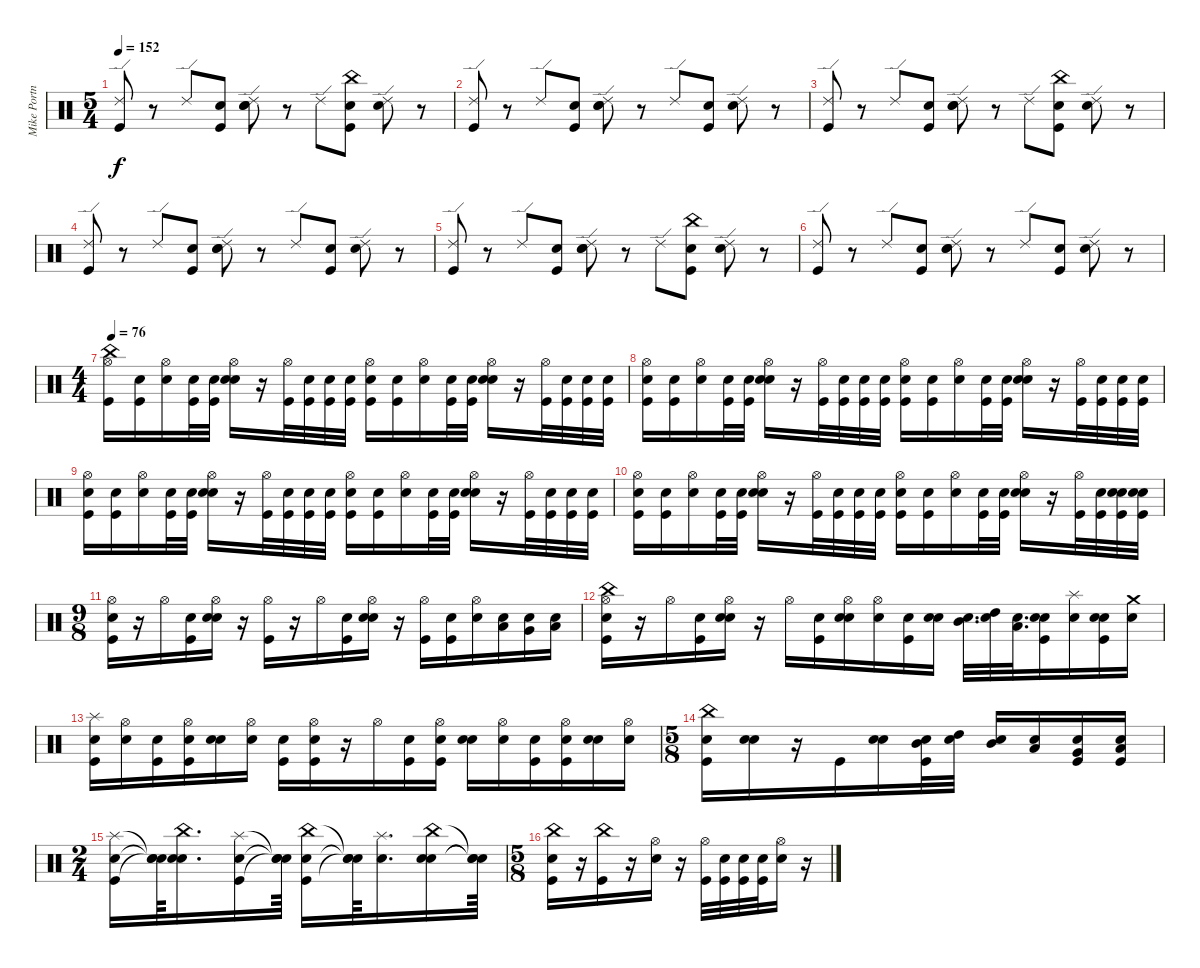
\track ("Mike Portnoy" "Mike Portn") {instrument percussion}
\staff {score}
\articulation defaults
\ts (5 4)
\tempo 152
\clef neutral
\ks c
("Kick (hit)" "Ride (edge) 2").8{dy f} r.8 "Ride (edge) 2".8 ("Snare (hit)" "Kick (hit)").8 ("Snare (hit)" "Snare (hit) 2" "Ride (edge) 2").8 r.8 "Ride (edge) 2".8 ("Snare (hit)" "Kick (hit)" "China (hit)").8 ("Snare (hit)" "Ride (edge) 2").8 r.8 |
("Kick (hit)" "Ride (edge) 2").8 r.8 "Ride (edge) 2".8 ("Snare (hit)" "Kick (hit)").8 ("Snare (hit)" "Snare (hit) 2" "Ride (edge) 2").8 r.8 "Ride (edge) 2".8 ("Snare (hit)" "Kick (hit)").8 ("Snare (hit)" "Ride (edge) 2").8 r.8 |
("Kick (hit)" "Ride (edge) 2").8 r.8 "Ride (edge) 2".8 ("Snare (hit)" "Kick (hit)").8 ("Snare (hit)" "Snare (hit) 2" "Ride (edge) 2").8 r.8 "Ride (edge) 2".8 ("Snare (hit)" "Kick (hit)" "China (hit)").8 ("Snare (hit)" "Ride (edge) 2").8 r.8 |
("Kick (hit)" "Ride (edge) 2").8 r.8 "Ride (edge) 2".8 ("Snare (hit)" "Kick (hit)").8 ("Snare (hit)" "Snare (hit) 2" "Ride (edge) 2").8 r.8 "Ride (edge) 2".8 ("Snare (hit)" "Kick (hit)").8 ("Snare (hit)" "Ride (edge) 2").8 r.8 |
("Kick (hit)" "Ride (edge) 2").8 r.8 "Ride (edge) 2".8 ("Snare (hit)" "Kick (hit)").8 ("Snare (hit)" "Snare (hit) 2" "Ride (edge) 2").8 r.8 "Ride (edge) 2".8 ("Snare (hit)" "Kick (hit)" "China (hit)").8 ("Snare (hit)" "Ride (edge) 2").8 r.8 |
("Kick (hit)" "Ride (edge) 2").8 r.8 "Ride (edge) 2".8 ("Snare (hit)" "Kick (hit)").8 ("Snare (hit)" "Snare (hit) 2" "Ride (edge) 2").8 r.8 "Ride (edge) 2".8 ("Snare (hit)" "Kick (hit)").8 ("Snare (hit)" "Ride (edge) 2").8 r.8 |
\ts (4 4)
\tempo 76
("Kick (hit)" "Hi-Hat (open)" "China (hit)").16 ("Snare (hit)" "Kick (hit)").16 ("Snare (hit)" "Hi-Hat (open)").16 ("Snare (hit)" "Kick (hit)").32 ("Snare (hit)" "Kick (hit)").32 ("Snare (hit)" "Snare (hit) 2" "Hi-Hat (open)").16 r.16 ("Kick (hit)" "Hi-Hat (open)").32 ("Snare (hit)" "Kick (hit)").32 ("Snare (hit)" "Kick (hit)").32 ("Snare (hit)" "Kick (hit)").32 ("Snare (hit)" "Kick (hit)" "Hi-Hat (open)").16 ("Snare (hit)" "Kick (hit)").16 ("Snare (hit)" "Hi-Hat (open)").16 ("Snare (hit)" "Kick (hit)").32 ("Snare (hit)" "Kick (hit)").32 ("Snare (hit)" "Snare (hit) 2" "Hi-Hat (open)").16 r.16 ("Kick (hit)" "Hi-Hat (open)").32 ("Snare (hit)" "Kick (hit)").32 ("Snare (hit)" "Kick (hit)").32 ("Snare (hit)" "Kick (hit)").32 |
("Snare (hit)" "Kick (hit)" "Hi-Hat (open)").16 ("Snare (hit)" "Kick (hit)").16 ("Snare (hit)" "Hi-Hat (open)").16 ("Snare (hit)" "Kick (hit)").32 ("Snare (hit)" "Kick (hit)").32 ("Snare (hit)" "Snare (hit) 2" "Hi-Hat (open)").16 r.16 ("Kick (hit)" "Hi-Hat (open)").32 ("Snare (hit)" "Kick (hit)").32 ("Snare (hit)" "Kick (hit)").32 ("Snare (hit)" "Kick (hit)").32 ("Snare (hit)" "Kick (hit)" "Hi-Hat (open)").16 ("Snare (hit)" "Kick (hit)").16 ("Snare (hit)" "Hi-Hat (open)").16 ("Snare (hit)" "Kick (hit)").32 ("Snare (hit)" "Kick (hit)").32 ("Snare (hit)" "Snare (hit) 2" "Hi-Hat (open)").16 r.16 ("Kick (hit)" "Hi-Hat (open)").32 ("Snare (hit)" "Kick (hit)").32 ("Snare (hit)" "Kick (hit)").32 ("Snare (hit)" "Kick (hit)").32 |
("Snare (hit)" "Kick (hit)" "Hi-Hat (open)").16 ("Snare (hit)" "Kick (hit)").16 ("Snare (hit)" "Hi-Hat (open)").16 ("Snare (hit)" "Kick (hit)").32 ("Snare (hit)" "Kick (hit)").32 ("Snare (hit)" "Snare (hit) 2" "Hi-Hat (open)").16 r.16 ("Kick (hit)" "Hi-Hat (open)").32 ("Snare (hit)" "Kick (hit)").32 ("Snare (hit)" "Kick (hit)").32 ("Snare (hit)" "Kick (hit)").32 ("Snare (hit)" "Kick (hit)" "Hi-Hat (open)").16 ("Snare (hit)" "Kick (hit)").16 ("Snare (hit)" "Hi-Hat (open)").16 ("Snare (hit)" "Kick (hit)").32 ("Snare (hit)" "Kick (hit)").32 ("Snare (hit)" "Snare (hit) 2" "Hi-Hat (open)").16 r.16 ("Kick (hit)" "Hi-Hat (open)").32 ("Snare (hit)" "Kick (hit)").32 ("Snare (hit)" "Kick (hit)").32 ("Snare (hit)" "Kick (hit)").32 |
("Snare (hit)" "Kick (hit)" "Hi-Hat (open)").16 ("Snare (hit)" "Kick (hit)").16 ("Snare (hit)" "Hi-Hat (open)").16 ("Snare (hit)" "Kick (hit)").32 ("Snare (hit)" "Kick (hit)").32 ("Snare (hit)" "Snare (hit) 2" "Hi-Hat (open)").16 r.16 ("Kick (hit)" "Hi-Hat (open)").32 ("Snare (hit)" "Kick (hit)").32 ("Snare (hit)" "Kick (hit)").32 ("Snare (hit)" "Kick (hit)").32 ("Snare (hit)" "Kick (hit)" "Hi-Hat (open)").16 ("Snare (hit)" "Kick (hit)").16 ("Snare (hit)" "Hi-Hat (open)").16 ("Snare (hit)" "Kick (hit)").32 ("Snare (hit)" "Kick (hit)").32 ("Snare (hit)" "Snare (hit) 2" "Hi-Hat (open)").16 r.16 ("Kick (hit)" "Hi-Hat (open)").32 ("Snare (hit)" "Kick (hit)").32 ("Snare (hit)" "Kick (hit)" "Snare (hit) 2").32 ("Snare (hit)" "Kick (hit)" "Snare (hit) 2").32 |
\ts (9 8)
("Snare (hit)" "Kick (hit)" "Hi-Hat (open)").16 r.16 "Hi-Hat (open)".16 ("Snare (hit)" "Kick (hit)").16 ("Snare (hit)" "Snare (hit) 2" "Hi-Hat (open)").16 r.16 ("Kick (hit)" "Hi-Hat (open)").16 r.16 "Hi-Hat (open)".16 ("Snare (hit)" "Kick (hit)").16 ("Snare (hit)" "Snare (hit) 2" "Hi-Hat (open)").16 r.16 ("Kick (hit)" "Hi-Hat (open)").16 ("Snare (hit)" "Kick (hit)").16 ("Snare (hit)" "Hi-Hat (open)").16 ("Snare (hit)" "Low Tom (hit)").16 ("Snare (hit)" "Very Low Tom (hit)").16 ("Snare (hit)" "Low Floor Tom (hit)").16 |
("Snare (hit)" "Kick (hit)" "Hi-Hat (open)" "China (hit)").16 r.16 "Hi-Hat (open)".16 ("Snare (hit)" "Kick (hit)").16 ("Snare (hit)" "Snare (hit) 2" "Hi-Hat (open)").16 r.16 "Hi-Hat (open)".16 ("Snare (hit)" "Kick (hit)").16 ("Snare (hit)" "Snare (hit) 2" "Hi-Hat (open)").16 ("Snare (hit)" "Hi-Hat (open)").16 ("Snare (hit)" "Kick (hit)").16 ("Snare (hit)" "Snare (hit) 2").16 ("Snare (hit)" "Mid Tom (hit)").32{d} ("Snare (hit)" "High Tom (hit)").32 ("Snare (hit)" "Low Tom (hit)").32{d} ("Snare (hit)" "Kick (hit)" "Snare (hit) 2").16 ("Snare (hit)" "Splash (hit)").16 ("Snare (hit)" "Kick (hit)" "Snare (hit) 2").16 ("Snare (hit)" "Crash medium (hit)").16 |
("Snare (hit)" "Kick (hit)" "Splash (hit)").16 ("Snare (hit)" "Hi-Hat (open)").16 ("Snare (hit)" "Kick (hit)").16 ("Snare (hit)" "Kick (hit)" "Hi-Hat (open)").16 ("Snare (hit)" "Snare (hit) 2").16 ("Snare (hit)" "Hi-Hat (open)").16 ("Snare (hit)" "Kick (hit)").16 ("Snare (hit)" "Kick (hit)" "Hi-Hat (open)").16 r.16 "Hi-Hat (open)".16 ("Snare (hit)" "Kick (hit)").16 ("Snare (hit)" "Kick (hit)" "Hi-Hat (open)").16 ("Snare (hit)" "Snare (hit) 2").16 ("Snare (hit)" "Hi-Hat (open)").16 ("Snare (hit)" "Kick (hit)").16 ("Snare (hit)" "Kick (hit)" "Hi-Hat (open)").16 ("Snare (hit)" "Snare (hit) 2").16 ("Snare (hit)" "Hi-Hat (open)").16 |
\ts (5 8)
("Snare (hit)" "Kick (hit)" "China (hit)").16 ("Snare (hit)" "Snare (hit) 2").16 r.16 "Kick (hit)".16 ("Snare (hit)" "Snare (hit) 2").16 ("Snare (hit)" "Kick (hit)" "Mid Tom (hit)").32 ("Snare (hit)" "High Tom (hit)").32 ("Snare (hit)" "Mid Tom (hit)").16 ("Snare (hit)" "Low Tom (hit)").16 ("Snare (hit)" "Kick (hit)" "Very Low Tom (hit)").16 ("Snare (hit)" "Kick (hit)" "Low Floor Tom (hit)").16 |
\ts (2 4)
("Snare (hit)" "Kick (hit)" "Splash (hit)").16 ("Snare (hit)"{t} "Snare (hit)"{t} "Snare (hit)"{t}).64 ("Snare (hit)" "Snare (hit) 2" "China (hit)").16{d} ("Snare (hit)" "Kick (hit)" "Splash (hit)").16 ("Snare (hit)"{t} "Snare (hit)"{t} "Snare (hit)"{t}).64 ("Snare (hit)" "Kick (hit)" "China (hit)").16 ("Snare (hit)"{t} "Snare (hit)"{t} "Snare (hit)"{t}).64 ("Snare (hit)" "Splash (hit)").16{d} ("Snare (hit)" "Snare (hit) 2" "China (hit)").16 ("Snare (hit)"{t} "Snare (hit)"{t} "Snare (hit)"{t}).64 |
\ts (5 8)
("Snare (hit)" "Kick (hit)" "China (hit)").16 r.16 ("Kick (hit)" "China (hit)").16 r.16 ("Snare (hit) 2" "Hi-Hat (open)").16 r.16 ("Kick (hit)" "Hi-Hat (open)").32 ("Snare (hit)" "Kick (hit)").32 ("Snare (hit)" "Kick (hit)").32 ("Snare (hit)" "Kick (hit)").32 ("Snare (hit)" "Hi-Hat (open)").16 r.16
